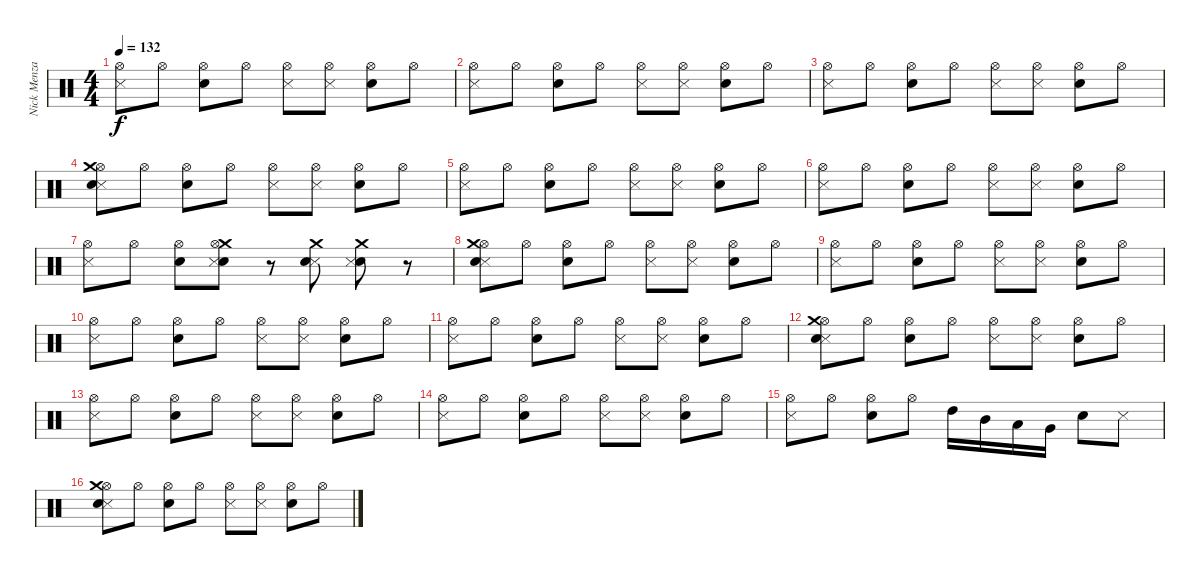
\track ("Nick Menza (Drums)" "Nick Menza") {instrument percussion}
\staff {score}
\articulation defaults
\ts (4 4)
\tempo 132
\clef neutral
\ks c
("Hi-Hat (open)" "Metronome (hit)").8{dy f} "Hi-Hat (open)".8 ("Electric Snare (hit)" "Hi-Hat (open)").8 "Hi-Hat (open)".8 ("Metronome (hit)" "Hi-Hat (open)").8 ("Metronome (hit)" "Hi-Hat (open)").8 ("Electric Snare (hit)" "Hi-Hat (open)").8 "Hi-Hat (open)".8 |
("Hi-Hat (open)" "Metronome (hit)").8 "Hi-Hat (open)".8 ("Hi-Hat (open)" "Electric Snare (hit)").8 "Hi-Hat (open)".8 ("Hi-Hat (open)" "Metronome (hit)").8 ("Hi-Hat (open)" "Metronome (hit)").8 ("Electric Snare (hit)" "Hi-Hat (open)").8 "Hi-Hat (open)".8 |
("Hi-Hat (open)" "Metronome (hit)").8 "Hi-Hat (open)".8 ("Hi-Hat (open)" "Electric Snare (hit)").8 "Hi-Hat (open)".8 ("Hi-Hat (open)" "Metronome (hit)").8 ("Hi-Hat (open)" "Metronome (hit)").8 ("Electric Snare (hit)" "Hi-Hat (open)").8 "Hi-Hat (open)".8 |
("Metronome (hit)" "Electric Snare (hit)" "Hi-Hat (open)" "Crash medium (hit)").8 "Hi-Hat (open)".8 ("Hi-Hat (open)" "Electric Snare (hit)").8 "Hi-Hat (open)".8 ("Metronome (hit)" "Hi-Hat (open)").8 ("Metronome (hit)" "Hi-Hat (open)").8 ("Electric Snare (hit)" "Hi-Hat (open)").8 "Hi-Hat (open)".8 |
("Hi-Hat (open)" "Metronome (hit)").8 "Hi-Hat (open)".8 ("Electric Snare (hit)" "Hi-Hat (open)").8 "Hi-Hat (open)".8 ("Metronome (hit)" "Hi-Hat (open)").8 ("Metronome (hit)" "Hi-Hat (open)").8 ("Electric Snare (hit)" "Hi-Hat (open)").8 "Hi-Hat (open)".8 |
("Hi-Hat (open)" "Metronome (hit)").8 "Hi-Hat (open)".8 ("Electric Snare (hit)" "Hi-Hat (open)").8 "Hi-Hat (open)".8 ("Hi-Hat (open)" "Metronome (hit)").8 ("Hi-Hat (open)" "Metronome (hit)").8 ("Electric Snare (hit)" "Hi-Hat (open)").8 "Hi-Hat (open)".8 |
("Hi-Hat (open)" "Metronome (hit)").8 "Hi-Hat (open)".8 ("Hi-Hat (open)" "Electric Snare (hit)").8 ("Crash medium (hit)" "Electric Snare (hit)" "Metronome (hit)" "Hi-Hat (open)").8 r.8 ("Metronome (hit)" "Crash medium (hit)" "Electric Snare (hit)").8 ("Electric Snare (hit)" "Metronome (hit)" "Crash medium (hit)").8 r.8 |
("Metronome (hit)" "Electric Snare (hit)" "Hi-Hat (open)" "Crash medium (hit)").8 "Hi-Hat (open)".8 ("Electric Snare (hit)" "Hi-Hat (open)").8 "Hi-Hat (open)".8 ("Hi-Hat (open)" "Metronome (hit)").8 ("Hi-Hat (open)" "Metronome (hit)").8 ("Hi-Hat (open)" "Electric Snare (hit)").8 "Hi-Hat (open)".8 |
("Hi-Hat (open)" "Metronome (hit)").8 "Hi-Hat (open)".8 ("Hi-Hat (open)" "Electric Snare (hit)").8 "Hi-Hat (open)".8 ("Metronome (hit)" "Hi-Hat (open)").8 ("Metronome (hit)" "Hi-Hat (open)").8 ("Electric Snare (hit)" "Hi-Hat (open)").8 "Hi-Hat (open)".8 |
("Hi-Hat (open)" "Metronome (hit)").8 "Hi-Hat (open)".8 ("Electric Snare (hit)" "Hi-Hat (open)").8 "Hi-Hat (open)".8 ("Hi-Hat (open)" "Metronome (hit)").8 ("Hi-Hat (open)" "Metronome (hit)").8 ("Hi-Hat (open)" "Electric Snare (hit)").8 "Hi-Hat (open)".8 |
("Hi-Hat (open)" "Metronome (hit)").8 "Hi-Hat (open)".8 ("Hi-Hat (open)" "Electric Snare (hit)").8 "Hi-Hat (open)".8 ("Metronome (hit)" "Hi-Hat (open)").8 ("Metronome (hit)" "Hi-Hat (open)").8 ("Electric Snare (hit)" "Hi-Hat (open)").8 "Hi-Hat (open)".8 |
("Metronome (hit)" "Electric Snare (hit)" "Hi-Hat (open)" "Crash medium (hit)").8 "Hi-Hat (open)".8 ("Electric Snare (hit)" "Hi-Hat (open)").8 "Hi-Hat (open)".8 ("Hi-Hat (open)" "Metronome (hit)").8 ("Hi-Hat (open)" "Metronome (hit)").8 ("Hi-Hat (open)" "Electric Snare (hit)").8 "Hi-Hat (open)".8 |
("Hi-Hat (open)" "Metronome (hit)").8 "Hi-Hat (open)".8 ("Hi-Hat (open)" "Electric Snare (hit)").8 "Hi-Hat (open)".8 ("Metronome (hit)" "Hi-Hat (open)").8 ("Metronome (hit)" "Hi-Hat (open)").8 ("Electric Snare (hit)" "Hi-Hat (open)").8 "Hi-Hat (open)".8 |
("Hi-Hat (open)" "Metronome (hit)").8 "Hi-Hat (open)".8 ("Electric Snare (hit)" "Hi-Hat (open)").8 "Hi-Hat (open)".8 ("Hi-Hat (open)" "Metronome (hit)").8 ("Hi-Hat (open)" "Metronome (hit)").8 ("Hi-Hat (open)" "Electric Snare (hit)").8 "Hi-Hat (open)".8 |
("Metronome (hit)" "Hi-Hat (open)").8 "Hi-Hat (open)".8 ("Hi-Hat (open)" "Electric Snare (hit)").8 "Hi-Hat (open)".8 "High Tom (hit)".16 "Mid Tom (hit)".16 "Low Tom (hit)".16 "Very Low Tom (hit)".16 "Electric Snare (hit)".8 "Metronome (hit)".8 |
("Metronome (hit)" "Electric Snare (hit)" "Hi-Hat (open)" "Crash medium (hit)").8 "Hi-Hat (open)".8 ("Electric Snare (hit)" "Hi-Hat (open)").8 "Hi-Hat (open)".8 ("Hi-Hat (open)" "Metronome (hit)").8 ("Hi-Hat (open)" "Metronome (hit)").8 ("Hi-Hat (open)" "Electric Snare (hit)").8 "Hi-Hat (open)".8
